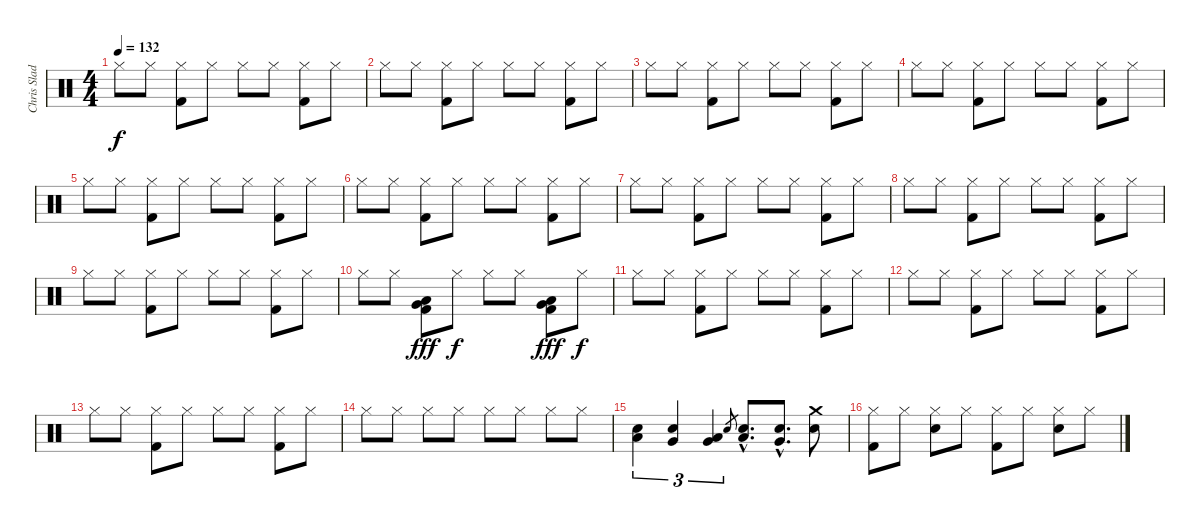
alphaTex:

\track ("Chris Slade" "Chris Slad") {instrument percussion}
\staff {score}
\articulation defaults
\ts (4 4)
\tempo 132
\clef neutral
\ks c "Hi-Hat (closed)".8{dy f} "Hi-Hat (closed)".8
("Kick (hit) 2" "Hi-Hat (closed)").8 "Hi-Hat (closed)".8 "Hi-Hat (closed)".8 "Hi-Hat (closed)".8 ("Kick (hit) 2" "Hi-Hat (closed)").8 "Hi-Hat (closed)".8 |
"Hi-Hat (closed)".8 "Hi-Hat (closed)".8 ("Kick (hit) 2" "Hi-Hat (closed)").8 "Hi-Hat (closed)".8 "Hi-Hat (closed)".8 "Hi-Hat (closed)".8 ("Kick (hit) 2" "Hi-Hat (closed)").8 "Hi-Hat (closed)".8 |
"Hi-Hat (closed)".8 "Hi-Hat (closed)".8 ("Kick (hit) 2" "Hi-Hat (closed)").8 "Hi-Hat (closed)".8 "Hi-Hat (closed)".8 "Hi-Hat (closed)".8 ("Kick (hit) 2" "Hi-Hat (closed)").8 "Hi-Hat (closed)".8 |
"Hi-Hat (closed)".8 "Hi-Hat (closed)".8 ("Kick (hit) 2" "Hi-Hat (closed)").8 "Hi-Hat (closed)".8 "Hi-Hat (closed)".8 "Hi-Hat (closed)".8 ("Kick (hit) 2" "Hi-Hat (closed)").8 "Hi-Hat (closed)".8 |
"Hi-Hat (closed)".8 "Hi-Hat (closed)".8 ("Kick (hit) 2" "Hi-Hat (closed)").8 "Hi-Hat (closed)".8 "Hi-Hat (closed)".8 "Hi-Hat (closed)".8 ("Kick (hit) 2" "Hi-Hat (closed)").8 "Hi-Hat (closed)".8 |
"Hi-Hat (closed)".8 "Hi-Hat (closed)".8 ("Kick (hit) 2" "Hi-Hat (closed)").8 "Hi-Hat (closed)".8 "Hi-Hat (closed)".8 "Hi-Hat (closed)".8 ("Kick (hit) 2" "Hi-Hat (closed)").8 "Hi-Hat (closed)".8 |
"Hi-Hat (closed)".8 "Hi-Hat (closed)".8 ("Kick (hit) 2" "Hi-Hat (closed)").8 "Hi-Hat (closed)".8 "Hi-Hat (closed)".8 "Hi-Hat (closed)".8 ("Kick (hit) 2" "Hi-Hat (closed)").8 "Hi-Hat (closed)".8 |
"Hi-Hat (closed)".8 "Hi-Hat (closed)".8 ("Kick (hit) 2" "Hi-Hat (closed)").8 "Hi-Hat (closed)".8 "Hi-Hat (closed)".8 "Hi-Hat (closed)".8 ("Kick (hit) 2" "Hi-Hat (closed)").8 "Hi-Hat (closed)".8 |
"Hi-Hat (closed)".8 "Hi-Hat (closed)".8 ("Kick (hit) 2" "Hi-Hat (closed)").8 "Hi-Hat (closed)".8 "Hi-Hat (closed)".8 "Hi-Hat (closed)".8 ("Kick (hit) 2" "Hi-Hat (closed)").8 "Hi-Hat (closed)".8 |
"Hi-Hat (closed)".8 "Hi-Hat (closed)".8 ("Kick (hit) 2" "Very Low Tom (hit)" "Low Floor Tom (hit)").8{dy fff} "Hi-Hat (closed)".8{dy f} "Hi-Hat (closed)".8 "Hi-Hat (closed)".8 ("Kick (hit) 2" "Very Low Tom (hit)" "Low Floor Tom (hit)").8{dy fff} "Hi-Hat (closed)".8{dy f} |
"Hi-Hat (closed)".8 "Hi-Hat (closed)".8 ("Kick (hit) 2" "Hi-Hat (closed)").8 "Hi-Hat (closed)".8 "Hi-Hat (closed)".8 "Hi-Hat (closed)".8 ("Kick (hit) 2" "Hi-Hat (closed)").8 "Hi-Hat (closed)".8 |
"Hi-Hat (closed)".8 "Hi-Hat (closed)".8 ("Kick (hit) 2" "Hi-Hat (closed)").8 "Hi-Hat (closed)".8 "Hi-Hat (closed)".8 "Hi-Hat (closed)".8 ("Kick (hit) 2" "Hi-Hat (closed)").8 "Hi-Hat (closed)".8 |
"Hi-Hat (closed)".8 "Hi-Hat (closed)".8 ("Kick (hit) 2" "Hi-Hat (closed)").8 "Hi-Hat (closed)".8 "Hi-Hat (closed)".8 "Hi-Hat (closed)".8 ("Kick (hit) 2" "Hi-Hat (closed)").8 "Hi-Hat (closed)".8 |
"Hi-Hat (closed)".8 "Hi-Hat (closed)".8 "Hi-Hat (closed)".8 "Hi-Hat (closed)".8 "Hi-Hat (closed)".8 "Hi-Hat (closed)".8 "Hi-Hat (closed)".8 "Hi-Hat (closed)".8 |
("Snare (hit) 2" "Low Tom (hit)").4{tu (3 2)} ("Snare (hit) 2" "Very Low Tom (hit)").4{tu (3 2)} ("Very Low Tom (hit)" "Low Floor Tom (hit)").4{tu (3 2)} "Snare (hit) 2".8{gr} ("Snare (hit) 2"{hac} "Low Tom (hit)"{hac}).8{d} ("Snare (hit) 2"{hac} "Very Low Tom (hit)"{hac}).8{d} ("Snare (hit) 2" "Crash medium (hit)").8 |
("Kick (hit) 2" "Hi-Hat (closed)").8 "Hi-Hat (closed)".8 ("Snare (hit) 2" "Hi-Hat (closed)").8 "Hi-Hat (closed)".8 ("Kick (hit) 2" "Hi-Hat (closed)").8 "Hi-Hat (closed)".8 ("Snare (hit) 2" "Hi-Hat (closed)").8 "Hi-Hat (closed)".8
